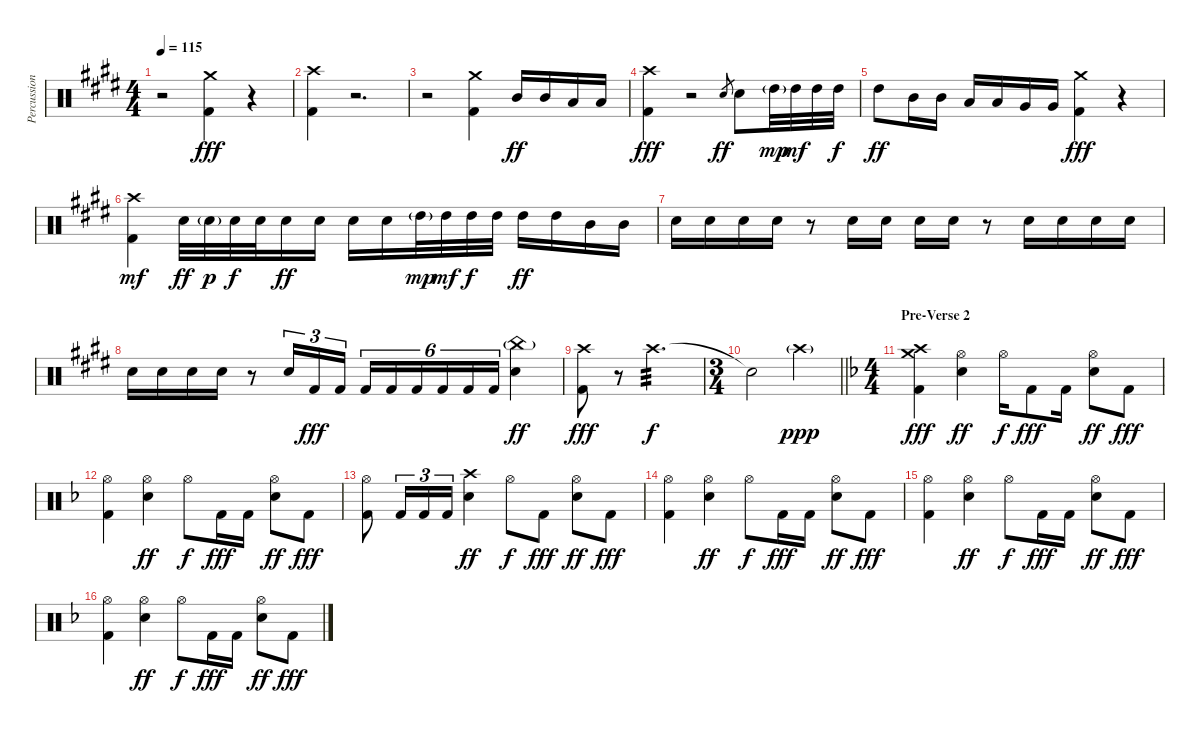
\track ("Percussion" "Percussion") {instrument percussion}
\staff {score}
\articulation defaults
\ts (4 4)
\tempo 115
\clef neutral
\ks c#minor
r.2{dy fff} ("Crash medium (hit)" "Kick (hit) 2").4 r.4 |
("Crash high (hit)" "Kick (hit) 2").4 r.2{d} |
r.2 ("Crash medium (hit)" "Kick (hit) 2").4 "Mid Tom (hit)".16{dy ff} "Mid Tom (hit)".16 "Low Tom (hit)".16 "Low Tom (hit)".16 |
("Crash high (hit)" "Kick (hit) 2").4{dy fff} r.2 "Electric Snare (hit)".8{gr dy ff} "Electric Snare (hit)".8 "High Tom (hit)"{g}.32{dy mp} "High Tom (hit)".32{dy mf} "High Tom (hit)".32 "High Tom (hit)".32{dy f} |
"High Tom (hit)".8{dy ff} "Mid Tom (hit)".16 "Mid Tom (hit)".16 "Low Tom (hit)".16 "Low Tom (hit)".16 "Very Low Tom (hit)".16 "Very Low Tom (hit)".16 ("Crash medium (hit)" "Kick (hit) 2").4{dy fff} r.4 |
("Crash high (hit)" "Kick (hit) 2").4{dy mf} "Electric Snare (hit)".32{dy ff} "Electric Snare (hit)"{g}.32{dy p} "Electric Snare (hit)".32{dy f} "Electric Snare (hit)".32 "Electric Snare (hit)".16{dy ff} "Electric Snare (hit)".16 "Electric Snare (hit)".16 "Electric Snare (hit)".16 "High Tom (hit)"{g}.32{dy mp} "High Tom (hit)".32{dy mf} "High Tom (hit)".32{dy f} "High Tom (hit)".32 "High Tom (hit)".16{dy ff} "High Tom (hit)".16 "Mid Tom (hit)".16 "Mid Tom (hit)".16 |
"Electric Snare (hit)".16 "Electric Snare (hit)".16 "Electric Snare (hit)".16 "Electric Snare (hit)".16 r.8 "Electric Snare (hit)".16 "Electric Snare (hit)".16 "Electric Snare (hit)".16 "Electric Snare (hit)".16 r.8 "Electric Snare (hit)".16 "Electric Snare (hit)".16 "Electric Snare (hit)".16 "Electric Snare (hit)".16 |
"Electric Snare (hit)".16 "Electric Snare (hit)".16 "Electric Snare (hit)".16 "Electric Snare (hit)".16 r.8 "Electric Snare (hit)".16{tu (3 2)} "Kick (hit) 2".16{tu (3 2) dy fff} "Kick (hit) 2".16{tu (3 2)} "Kick (hit) 2".16{tu (6 4)} "Kick (hit) 2".16{tu (6 4)} "Kick (hit) 2".16{tu (6 4)} "Kick (hit) 2".16{tu (6 4)} "Kick (hit) 2".16{tu (6 4)} "Kick (hit) 2".16{tu (6 4)} ("China (hit)"{g} "Electric Snare (hit)").4{dy ff} |
("Crash high (hit)" "Kick (hit) 2").8{dy fff} r.8{volume 0} "Crash high (hit)".2{d tp 3 dy f volume 16} |
\ts (3 4)
\barLineRight lightlight "Snare (hit)"{t}.2 "Crash high (hit)"{g}.4{dy ppp}
|
\ts (4 4)
\section ("" "Pre-Verse 2")
\ks dminor
("Crash high (hit)" "Crash medium (hit)" "Kick (hit) 2").4{dy fff} ("Hi-Hat (open)" "Electric Snare (hit)").4{dy ff} "Hi-Hat (open)".16{dy f} "Kick (hit) 2".8{dy fff} "Kick (hit) 2".16 ("Hi-Hat (open)" "Electric Snare (hit)").8{dy ff} "Kick (hit) 2".8{dy fff} |
("Hi-Hat (open)" "Kick (hit) 2").4 ("Hi-Hat (open)" "Electric Snare (hit)").4{dy ff} "Hi-Hat (open)".8{dy f} "Kick (hit) 2".16{dy fff} "Kick (hit) 2".16 ("Hi-Hat (open)" "Electric Snare (hit)").8{dy ff} "Kick (hit) 2".8{dy fff} |
("Hi-Hat (open)" "Kick (hit) 2").8 "Kick (hit) 2".16{tu (3 2)} "Kick (hit) 2".16{tu (3 2)} "Kick (hit) 2".16{tu (3 2)} ("Crash high (hit)" "Electric Snare (hit)").4{dy ff} "Hi-Hat (open)".8{dy f} "Kick (hit) 2".8{dy fff} ("Hi-Hat (open)" "Electric Snare (hit)").8{dy ff} "Kick (hit) 2".8{dy fff} |
("Hi-Hat (open)" "Kick (hit) 2").4 ("Hi-Hat (open)" "Electric Snare (hit)").4{dy ff} "Hi-Hat (open)".8{dy f} "Kick (hit) 2".16{dy fff} "Kick (hit) 2".16 ("Hi-Hat (open)" "Electric Snare (hit)").8{dy ff} "Kick (hit) 2".8{dy fff} |
("Hi-Hat (open)" "Kick (hit) 2").4 ("Hi-Hat (open)" "Electric Snare (hit)").4{dy ff} "Hi-Hat (open)".8{dy f} "Kick (hit) 2".16{dy fff} "Kick (hit) 2".16 ("Hi-Hat (open)" "Electric Snare (hit)").8{dy ff} "Kick (hit) 2".8{dy fff} |
("Hi-Hat (open)" "Kick (hit) 2").4 ("Hi-Hat (open)" "Electric Snare (hit)").4{dy ff} "Hi-Hat (open)".8{dy f} "Kick (hit) 2".16{dy fff} "Kick (hit) 2".16 ("Hi-Hat (open)" "Electric Snare (hit)").8{dy ff} "Kick (hit) 2".8{dy fff}
